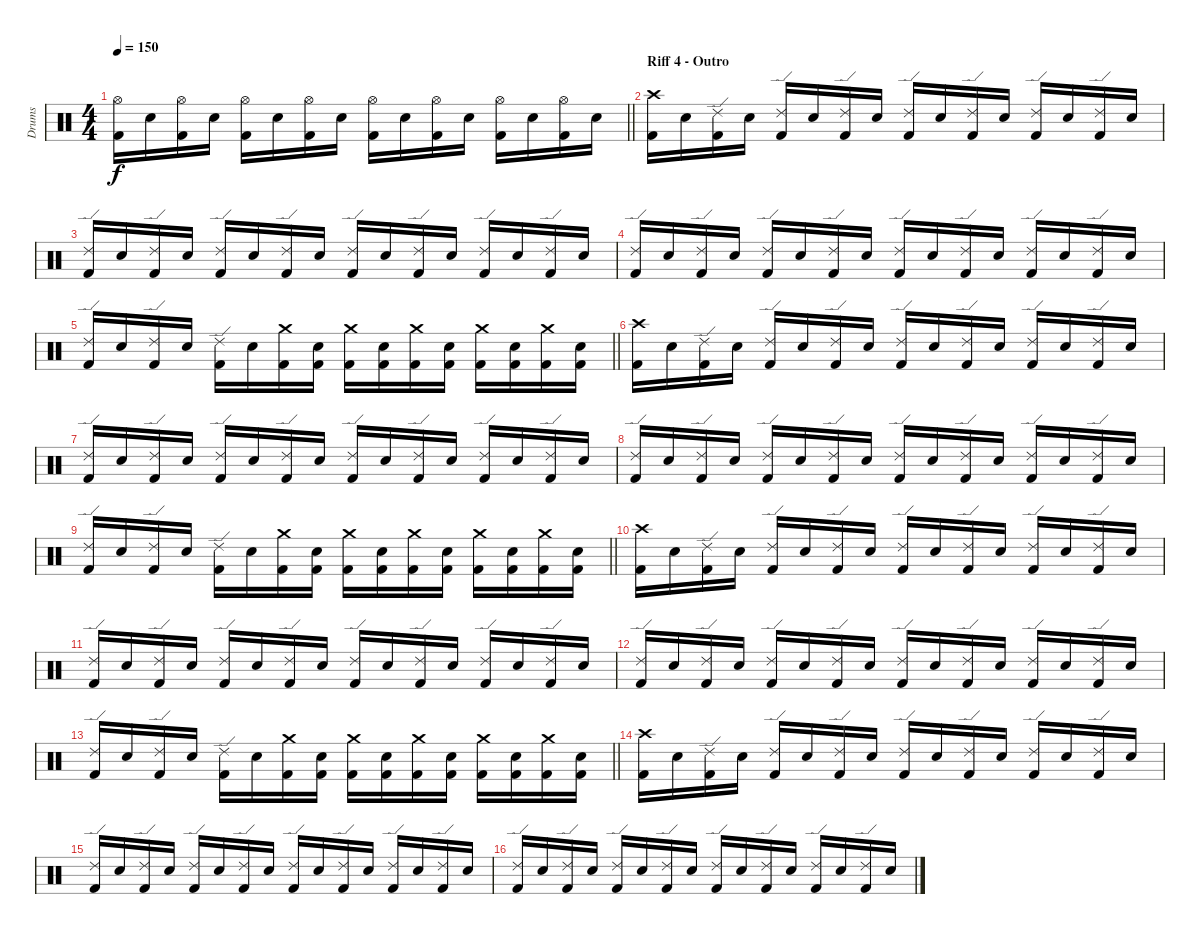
\track ("Drums" "Drums") {instrument percussion}
\staff {score}
\articulation defaults
\ts (4 4)
\tempo 150
\clef neutral
\barLineRight lightlight
\ks c
("Hi-Hat (open)" "Kick (hit) 2").16{dy f} "Electric Snare (hit)".16 ("Hi-Hat (open)" "Kick (hit) 2").16 "Electric Snare (hit)".16 ("Hi-Hat (open)" "Kick (hit) 2").16 "Electric Snare (hit)".16 ("Hi-Hat (open)" "Kick (hit) 2").16 "Electric Snare (hit)".16 ("Hi-Hat (open)" "Kick (hit) 2").16 "Electric Snare (hit)".16 ("Hi-Hat (open)" "Kick (hit) 2").16 "Electric Snare (hit)".16 ("Hi-Hat (open)" "Kick (hit) 2").16 "Electric Snare (hit)".16 ("Hi-Hat (open)" "Kick (hit) 2").16 "Electric Snare (hit)".16 |
\section ("" "Riff 4 - Outro")
("Crash high (hit)" "Kick (hit) 2").16 "Electric Snare (hit)".16 ("Ride (edge) 2" "Kick (hit) 2").16 "Electric Snare (hit)".16 ("Ride (edge) 2" "Kick (hit) 2").16 "Electric Snare (hit)".16 ("Ride (edge) 2" "Kick (hit) 2").16 "Electric Snare (hit)".16 ("Ride (edge) 2" "Kick (hit) 2").16 "Electric Snare (hit)".16 ("Ride (edge) 2" "Kick (hit) 2").16 "Electric Snare (hit)".16 ("Ride (edge) 2" "Kick (hit) 2").16 "Electric Snare (hit)".16 ("Ride (edge) 2" "Kick (hit) 2").16 "Electric Snare (hit)".16 |
("Ride (edge) 2" "Kick (hit) 2").16 "Electric Snare (hit)".16 ("Ride (edge) 2" "Kick (hit) 2").16 "Electric Snare (hit)".16 ("Ride (edge) 2" "Kick (hit) 2").16 "Electric Snare (hit)".16 ("Ride (edge) 2" "Kick (hit) 2").16 "Electric Snare (hit)".16 ("Ride (edge) 2" "Kick (hit) 2").16 "Electric Snare (hit)".16 ("Ride (edge) 2" "Kick (hit) 2").16 "Electric Snare (hit)".16 ("Ride (edge) 2" "Kick (hit) 2").16 "Electric Snare (hit)".16 ("Ride (edge) 2" "Kick (hit) 2").16 "Electric Snare (hit)".16 |
("Ride (edge) 2" "Kick (hit) 2").16 "Electric Snare (hit)".16 ("Ride (edge) 2" "Kick (hit) 2").16 "Electric Snare (hit)".16 ("Ride (edge) 2" "Kick (hit) 2").16 "Electric Snare (hit)".16 ("Ride (edge) 2" "Kick (hit) 2").16 "Electric Snare (hit)".16 ("Ride (edge) 2" "Kick (hit) 2").16 "Electric Snare (hit)".16 ("Ride (edge) 2" "Kick (hit) 2").16 "Electric Snare (hit)".16 ("Ride (edge) 2" "Kick (hit) 2").16 "Electric Snare (hit)".16 ("Ride (edge) 2" "Kick (hit) 2").16 "Electric Snare (hit)".16 |
\barLineRight lightlight
("Ride (edge) 2" "Kick (hit) 2").16 "Electric Snare (hit)".16 ("Ride (edge) 2" "Kick (hit) 2").16 "Electric Snare (hit)".16 ("Ride (edge) 2" "Kick (hit) 2").16 "Electric Snare (hit)".16 ("Crash medium (hit)" "Kick (hit) 2").16 ("Electric Snare (hit)" "Kick (hit) 2").16 ("Crash medium (hit)" "Kick (hit) 2").16 ("Electric Snare (hit)" "Kick (hit) 2").16 ("Crash medium (hit)" "Kick (hit) 2").16 ("Electric Snare (hit)" "Kick (hit) 2").16 ("Crash medium (hit)" "Kick (hit) 2").16 ("Electric Snare (hit)" "Kick (hit) 2").16 ("Crash medium (hit)" "Kick (hit) 2").16 ("Electric Snare (hit)" "Kick (hit) 2").16 |
("Crash high (hit)" "Kick (hit) 2").16 "Electric Snare (hit)".16 ("Ride (edge) 2" "Kick (hit) 2").16 "Electric Snare (hit)".16 ("Ride (edge) 2" "Kick (hit) 2").16 "Electric Snare (hit)".16 ("Ride (edge) 2" "Kick (hit) 2").16 "Electric Snare (hit)".16 ("Ride (edge) 2" "Kick (hit) 2").16 "Electric Snare (hit)".16 ("Ride (edge) 2" "Kick (hit) 2").16 "Electric Snare (hit)".16 ("Ride (edge) 2" "Kick (hit) 2").16 "Electric Snare (hit)".16 ("Ride (edge) 2" "Kick (hit) 2").16 "Electric Snare (hit)".16 |
("Ride (edge) 2" "Kick (hit) 2").16 "Electric Snare (hit)".16 ("Ride (edge) 2" "Kick (hit) 2").16 "Electric Snare (hit)".16 ("Ride (edge) 2" "Kick (hit) 2").16 "Electric Snare (hit)".16 ("Ride (edge) 2" "Kick (hit) 2").16 "Electric Snare (hit)".16 ("Ride (edge) 2" "Kick (hit) 2").16 "Electric Snare (hit)".16 ("Ride (edge) 2" "Kick (hit) 2").16 "Electric Snare (hit)".16 ("Ride (edge) 2" "Kick (hit) 2").16 "Electric Snare (hit)".16 ("Ride (edge) 2" "Kick (hit) 2").16 "Electric Snare (hit)".16 |
("Ride (edge) 2" "Kick (hit) 2").16 "Electric Snare (hit)".16 ("Ride (edge) 2" "Kick (hit) 2").16 "Electric Snare (hit)".16 ("Ride (edge) 2" "Kick (hit) 2").16 "Electric Snare (hit)".16 ("Ride (edge) 2" "Kick (hit) 2").16 "Electric Snare (hit)".16 ("Ride (edge) 2" "Kick (hit) 2").16 "Electric Snare (hit)".16 ("Ride (edge) 2" "Kick (hit) 2").16 "Electric Snare (hit)".16 ("Ride (edge) 2" "Kick (hit) 2").16 "Electric Snare (hit)".16 ("Ride (edge) 2" "Kick (hit) 2").16 "Electric Snare (hit)".16 |
\barLineRight lightlight
("Ride (edge) 2" "Kick (hit) 2").16 "Electric Snare (hit)".16 ("Ride (edge) 2" "Kick (hit) 2").16 "Electric Snare (hit)".16 ("Ride (edge) 2" "Kick (hit) 2").16 "Electric Snare (hit)".16 ("Crash medium (hit)" "Kick (hit) 2").16 ("Electric Snare (hit)" "Kick (hit) 2").16 ("Crash medium (hit)" "Kick (hit) 2").16 ("Electric Snare (hit)" "Kick (hit) 2").16 ("Crash medium (hit)" "Kick (hit) 2").16 ("Electric Snare (hit)" "Kick (hit) 2").16 ("Crash medium (hit)" "Kick (hit) 2").16 ("Electric Snare (hit)" "Kick (hit) 2").16 ("Crash medium (hit)" "Kick (hit) 2").16 ("Electric Snare (hit)" "Kick (hit) 2").16 |
("Crash high (hit)" "Kick (hit) 2").16 "Electric Snare (hit)".16 ("Ride (edge) 2" "Kick (hit) 2").16 "Electric Snare (hit)".16 ("Ride (edge) 2" "Kick (hit) 2").16 "Electric Snare (hit)".16 ("Ride (edge) 2" "Kick (hit) 2").16 "Electric Snare (hit)".16 ("Ride (edge) 2" "Kick (hit) 2").16 "Electric Snare (hit)".16 ("Ride (edge) 2" "Kick (hit) 2").16 "Electric Snare (hit)".16 ("Ride (edge) 2" "Kick (hit) 2").16 "Electric Snare (hit)".16 ("Ride (edge) 2" "Kick (hit) 2").16 "Electric Snare (hit)".16 |
("Ride (edge) 2" "Kick (hit) 2").16 "Electric Snare (hit)".16 ("Ride (edge) 2" "Kick (hit) 2").16 "Electric Snare (hit)".16 ("Ride (edge) 2" "Kick (hit) 2").16 "Electric Snare (hit)".16 ("Ride (edge) 2" "Kick (hit) 2").16 "Electric Snare (hit)".16 ("Ride (edge) 2" "Kick (hit) 2").16 "Electric Snare (hit)".16 ("Ride (edge) 2" "Kick (hit) 2").16 "Electric Snare (hit)".16 ("Ride (edge) 2" "Kick (hit) 2").16 "Electric Snare (hit)".16 ("Ride (edge) 2" "Kick (hit) 2").16 "Electric Snare (hit)".16 |
("Ride (edge) 2" "Kick (hit) 2").16 "Electric Snare (hit)".16 ("Ride (edge) 2" "Kick (hit) 2").16 "Electric Snare (hit)".16 ("Ride (edge) 2" "Kick (hit) 2").16 "Electric Snare (hit)".16 ("Ride (edge) 2" "Kick (hit) 2").16 "Electric Snare (hit)".16 ("Ride (edge) 2" "Kick (hit) 2").16 "Electric Snare (hit)".16 ("Ride (edge) 2" "Kick (hit) 2").16 "Electric Snare (hit)".16 ("Ride (edge) 2" "Kick (hit) 2").16 "Electric Snare (hit)".16 ("Ride (edge) 2" "Kick (hit) 2").16 "Electric Snare (hit)".16 |
\barLineRight lightlight
("Ride (edge) 2" "Kick (hit) 2").16 "Electric Snare (hit)".16 ("Ride (edge) 2" "Kick (hit) 2").16 "Electric Snare (hit)".16 ("Ride (edge) 2" "Kick (hit) 2").16 "Electric Snare (hit)".16 ("Crash medium (hit)" "Kick (hit) 2").16 ("Electric Snare (hit)" "Kick (hit) 2").16 ("Crash medium (hit)" "Kick (hit) 2").16 ("Electric Snare (hit)" "Kick (hit) 2").16 ("Crash medium (hit)" "Kick (hit) 2").16 ("Electric Snare (hit)" "Kick (hit) 2").16 ("Crash medium (hit)" "Kick (hit) 2").16 ("Electric Snare (hit)" "Kick (hit) 2").16 ("Crash medium (hit)" "Kick (hit) 2").16 ("Electric Snare (hit)" "Kick (hit) 2").16 |
("Crash high (hit)" "Kick (hit) 2").16 "Electric Snare (hit)".16 ("Ride (edge) 2" "Kick (hit) 2").16 "Electric Snare (hit)".16 ("Ride (edge) 2" "Kick (hit) 2").16 "Electric Snare (hit)".16 ("Ride (edge) 2" "Kick (hit) 2").16 "Electric Snare (hit)".16 ("Ride (edge) 2" "Kick (hit) 2").16 "Electric Snare (hit)".16 ("Ride (edge) 2" "Kick (hit) 2").16 "Electric Snare (hit)".16 ("Ride (edge) 2" "Kick (hit) 2").16 "Electric Snare (hit)".16 ("Ride (edge) 2" "Kick (hit) 2").16 "Electric Snare (hit)".16 |
("Ride (edge) 2" "Kick (hit) 2").16 "Electric Snare (hit)".16 ("Ride (edge) 2" "Kick (hit) 2").16 "Electric Snare (hit)".16 ("Ride (edge) 2" "Kick (hit) 2").16 "Electric Snare (hit)".16 ("Ride (edge) 2" "Kick (hit) 2").16 "Electric Snare (hit)".16 ("Ride (edge) 2" "Kick (hit) 2").16 "Electric Snare (hit)".16 ("Ride (edge) 2" "Kick (hit) 2").16 "Electric Snare (hit)".16 ("Ride (edge) 2" "Kick (hit) 2").16 "Electric Snare (hit)".16 ("Ride (edge) 2" "Kick (hit) 2").16 "Electric Snare (hit)".16 |
("Ride (edge) 2" "Kick (hit) 2").16 "Electric Snare (hit)".16 ("Ride (edge) 2" "Kick (hit) 2").16 "Electric Snare (hit)".16 ("Ride (edge) 2" "Kick (hit) 2").16 "Electric Snare (hit)".16 ("Ride (edge) 2" "Kick (hit) 2").16 "Electric Snare (hit)".16 ("Ride (edge) 2" "Kick (hit) 2").16 "Electric Snare (hit)".16 ("Ride (edge) 2" "Kick (hit) 2").16 "Electric Snare (hit)".16 ("Ride (edge) 2" "Kick (hit) 2").16 "Electric Snare (hit)".16 ("Ride (edge) 2" "Kick (hit) 2").16 "Electric Snare (hit)".16
